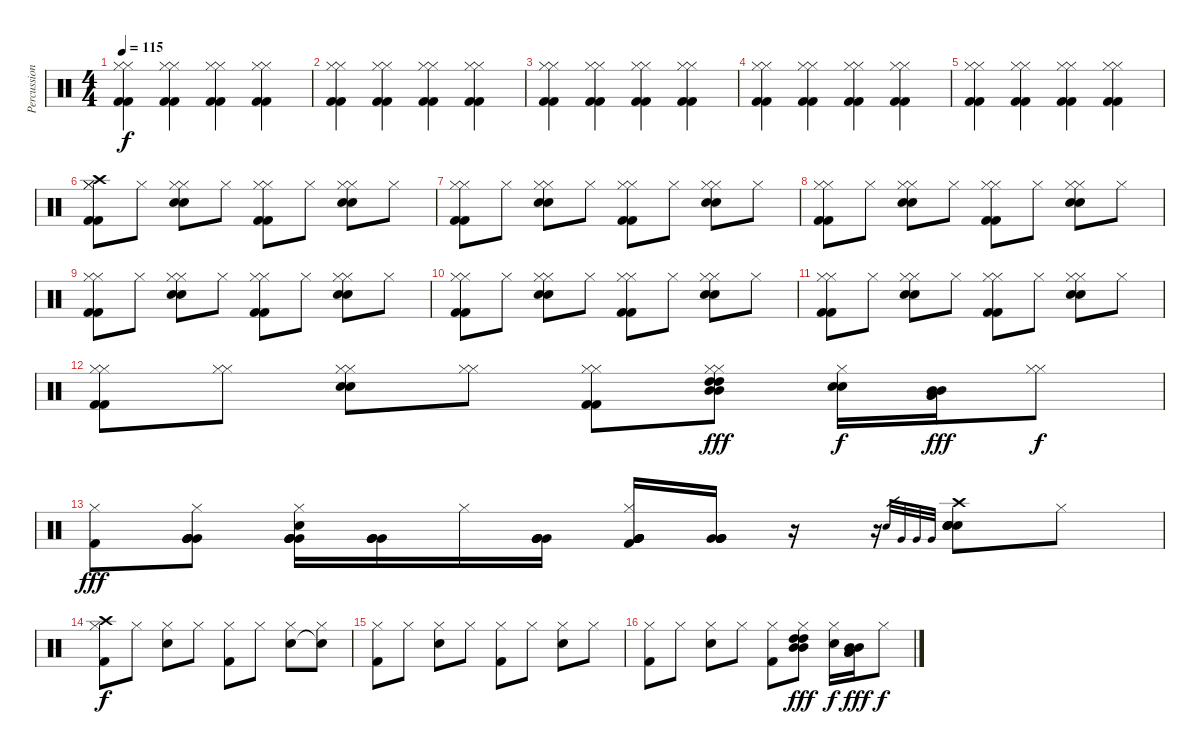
\track ("Percussion" "Percussion") {instrument percussion}
\staff {score}
\articulation defaults
\ts (4 4)
\tempo 115
\clef neutral
\ks c
("Kick (hit) 2" "Kick (hit) 2" "Hi-Hat (closed)" "Hi-Hat (closed)").4{dy f} ("Kick (hit) 2" "Kick (hit) 2" "Hi-Hat (closed)" "Hi-Hat (closed)").4 ("Kick (hit) 2" "Kick (hit) 2" "Hi-Hat (closed)" "Hi-Hat (closed)").4 ("Kick (hit) 2" "Kick (hit) 2" "Hi-Hat (closed)" "Hi-Hat (closed)").4 |
("Kick (hit) 2" "Kick (hit) 2" "Hi-Hat (closed)" "Hi-Hat (closed)").4 ("Kick (hit) 2" "Kick (hit) 2" "Hi-Hat (closed)" "Hi-Hat (closed)").4 ("Kick (hit) 2" "Kick (hit) 2" "Hi-Hat (closed)" "Hi-Hat (closed)").4 ("Kick (hit) 2" "Kick (hit) 2" "Hi-Hat (closed)" "Hi-Hat (closed)").4 |
("Kick (hit) 2" "Kick (hit) 2" "Hi-Hat (closed)" "Hi-Hat (closed)").4 ("Kick (hit) 2" "Kick (hit) 2" "Hi-Hat (closed)" "Hi-Hat (closed)").4 ("Kick (hit) 2" "Kick (hit) 2" "Hi-Hat (closed)" "Hi-Hat (closed)").4 ("Kick (hit) 2" "Kick (hit) 2" "Hi-Hat (closed)" "Hi-Hat (closed)").4 |
("Kick (hit) 2" "Kick (hit) 2" "Hi-Hat (closed)" "Hi-Hat (closed)").4 ("Kick (hit) 2" "Kick (hit) 2" "Hi-Hat (closed)" "Hi-Hat (closed)").4 ("Kick (hit) 2" "Kick (hit) 2" "Hi-Hat (closed)" "Hi-Hat (closed)").4 ("Kick (hit) 2" "Kick (hit) 2" "Hi-Hat (closed)" "Hi-Hat (closed)").4 |
("Kick (hit) 2" "Kick (hit) 2" "Hi-Hat (closed)" "Hi-Hat (closed)").4 ("Kick (hit) 2" "Kick (hit) 2" "Hi-Hat (closed)" "Hi-Hat (closed)").4 ("Kick (hit) 2" "Kick (hit) 2" "Hi-Hat (closed)" "Hi-Hat (closed)").4 ("Kick (hit) 2" "Kick (hit) 2" "Hi-Hat (closed)" "Hi-Hat (closed)").4 |
("Kick (hit) 2" "Kick (hit) 2" "Hi-Hat (closed)" "Hi-Hat (closed)" "Crash high (hit)").8 "Hi-Hat (closed)".8 ("Electric Snare (hit)" "Electric Snare (hit)" "Hi-Hat (closed)" "Hi-Hat (closed)").8 "Hi-Hat (closed)".8 ("Kick (hit) 2" "Kick (hit) 2" "Hi-Hat (closed)" "Hi-Hat (closed)").8 "Hi-Hat (closed)".8 ("Electric Snare (hit)" "Electric Snare (hit)" "Hi-Hat (closed)" "Hi-Hat (closed)").8 "Hi-Hat (closed)".8 |
("Kick (hit) 2" "Kick (hit) 2" "Hi-Hat (closed)" "Hi-Hat (closed)").8 "Hi-Hat (closed)".8 ("Electric Snare (hit)" "Electric Snare (hit)" "Hi-Hat (closed)" "Hi-Hat (closed)").8 "Hi-Hat (closed)".8 ("Kick (hit) 2" "Kick (hit) 2" "Hi-Hat (closed)" "Hi-Hat (closed)").8 "Hi-Hat (closed)".8 ("Electric Snare (hit)" "Electric Snare (hit)" "Hi-Hat (closed)" "Hi-Hat (closed)").8 "Hi-Hat (closed)".8 |
("Kick (hit) 2" "Kick (hit) 2" "Hi-Hat (closed)" "Hi-Hat (closed)").8 "Hi-Hat (closed)".8 ("Electric Snare (hit)" "Electric Snare (hit)" "Hi-Hat (closed)" "Hi-Hat (closed)").8 "Hi-Hat (closed)".8 ("Kick (hit) 2" "Kick (hit) 2" "Hi-Hat (closed)" "Hi-Hat (closed)").8 "Hi-Hat (closed)".8 ("Electric Snare (hit)" "Electric Snare (hit)" "Hi-Hat (closed)" "Hi-Hat (closed)").8 "Hi-Hat (closed)".8 |
("Kick (hit) 2" "Kick (hit) 2" "Hi-Hat (closed)" "Hi-Hat (closed)").8 "Hi-Hat (closed)".8 ("Electric Snare (hit)" "Electric Snare (hit)" "Hi-Hat (closed)" "Hi-Hat (closed)").8 "Hi-Hat (closed)".8 ("Kick (hit) 2" "Kick (hit) 2" "Hi-Hat (closed)" "Hi-Hat (closed)").8 "Hi-Hat (closed)".8 ("Electric Snare (hit)" "Electric Snare (hit)" "Hi-Hat (closed)" "Hi-Hat (closed)").8 "Hi-Hat (closed)".8 |
("Kick (hit) 2" "Kick (hit) 2" "Hi-Hat (closed)" "Hi-Hat (closed)").8 "Hi-Hat (closed)".8 ("Electric Snare (hit)" "Electric Snare (hit)" "Hi-Hat (closed)" "Hi-Hat (closed)").8 "Hi-Hat (closed)".8 ("Kick (hit) 2" "Kick (hit) 2" "Hi-Hat (closed)" "Hi-Hat (closed)").8 "Hi-Hat (closed)".8 ("Electric Snare (hit)" "Electric Snare (hit)" "Hi-Hat (closed)" "Hi-Hat (closed)").8 "Hi-Hat (closed)".8 |
("Kick (hit) 2" "Kick (hit) 2" "Hi-Hat (closed)" "Hi-Hat (closed)").8 "Hi-Hat (closed)".8 ("Electric Snare (hit)" "Electric Snare (hit)" "Hi-Hat (closed)" "Hi-Hat (closed)").8 "Hi-Hat (closed)".8 ("Kick (hit) 2" "Kick (hit) 2" "Hi-Hat (closed)" "Hi-Hat (closed)").8 "Hi-Hat (closed)".8 ("Electric Snare (hit)" "Electric Snare (hit)" "Hi-Hat (closed)" "Hi-Hat (closed)").8 "Hi-Hat (closed)".8 |
("Hi-Hat (closed)" "Kick (hit) 2" "Kick (hit) 2" "Hi-Hat (closed)").8 ("Hi-Hat (closed)" "Hi-Hat (closed)").8 ("Hi-Hat (closed)" "Electric Snare (hit)" "Electric Snare (hit)" "Hi-Hat (closed)").8 ("Hi-Hat (closed)" "Hi-Hat (closed)").8 ("Hi-Hat (closed)" "Kick (hit) 2" "Kick (hit) 2" "Hi-Hat (closed)").8 ("Hi-Hat (closed)" "Hi-Hat (closed)" "High Tom (hit)" "High Tom (hit)" "Mid Tom (hit)" "Mid Tom (hit)").8{dy fff} ("Hi-Hat (closed)" "Electric Snare (hit)" "Electric Snare (hit)").16{dy f} ("Mid Tom (hit)" "Mid Tom (hit)" "Low Tom (hit)" "Low Tom (hit)").16{dy fff} ("Hi-Hat (closed)" "Hi-Hat (closed)").8{dy f} |
("Hi-Hat (closed)" "Kick (hit) 2").8{dy fff} ("Hi-Hat (closed)" "Very Low Tom (hit)" "Very Low Tom (hit)" "Very Low Tom (hit)" "Very Low Tom (hit)").8 ("Hi-Hat (closed)" "Electric Snare (hit)" "Very Low Tom (hit)" "Very Low Tom (hit)" "Very Low Tom (hit)" "Very Low Tom (hit)").16 ("Very Low Tom (hit)" "Very Low Tom (hit)" "Very Low Tom (hit)" "Very Low Tom (hit)").16 "Hi-Hat (closed)".16 ("Very Low Tom (hit)" "Very Low Tom (hit)" "Very Low Tom (hit)" "Very Low Tom (hit)").16 ("Hi-Hat (closed)" "Kick (hit) 2" "Very Low Tom (hit)" "Very Low Tom (hit)" "Very Low Tom (hit)" "Very Low Tom (hit)").16 ("Very Low Tom (hit)" "Very Low Tom (hit)" "Very Low Tom (hit)" "Very Low Tom (hit)").16 r.16 r.16 "Snare (hit)".32{gr} "Very Low Tom (hit)".32{gr} "Very Low Tom (hit)".32{gr} "Very Low Tom (hit)".32{gr} ("Crash high (hit)" "Electric Snare (hit)" "Electric Snare (hit)" "Electric Snare (hit)" "Electric Snare (hit)" "Electric Snare (hit)").8 "Hi-Hat (closed)".8 |
("Hi-Hat (closed)" "Kick (hit) 2" "Crash high (hit)").8{dy f} "Hi-Hat (closed)".8 ("Hi-Hat (closed)" "Electric Snare (hit)").8 "Hi-Hat (closed)".8 ("Hi-Hat (closed)" "Kick (hit) 2").8 "Hi-Hat (closed)".8 ("Hi-Hat (closed)" "Electric Snare (hit)").8 ("Hi-Hat (closed)" "Snare (hit)"{t}).8 |
("Hi-Hat (closed)" "Kick (hit) 2").8 "Hi-Hat (closed)".8 ("Hi-Hat (closed)" "Electric Snare (hit)").8 "Hi-Hat (closed)".8 ("Hi-Hat (closed)" "Kick (hit) 2").8 "Hi-Hat (closed)".8 ("Hi-Hat (closed)" "Electric Snare (hit)").8 "Hi-Hat (closed)".8 |
("Hi-Hat (closed)" "Kick (hit) 2").8 "Hi-Hat (closed)".8 ("Hi-Hat (closed)" "Electric Snare (hit)").8 "Hi-Hat (closed)".8 ("Hi-Hat (closed)" "Kick (hit) 2").8 ("Hi-Hat (closed)" "High Tom (hit)" "High Tom (hit)" "Mid Tom (hit)" "Mid Tom (hit)").8{dy fff} ("Hi-Hat (closed)" "Electric Snare (hit)").16{dy f} ("Mid Tom (hit)" "Mid Tom (hit)" "Low Tom (hit)" "Low Tom (hit)").16{dy fff} "Hi-Hat (closed)".8{dy f}
